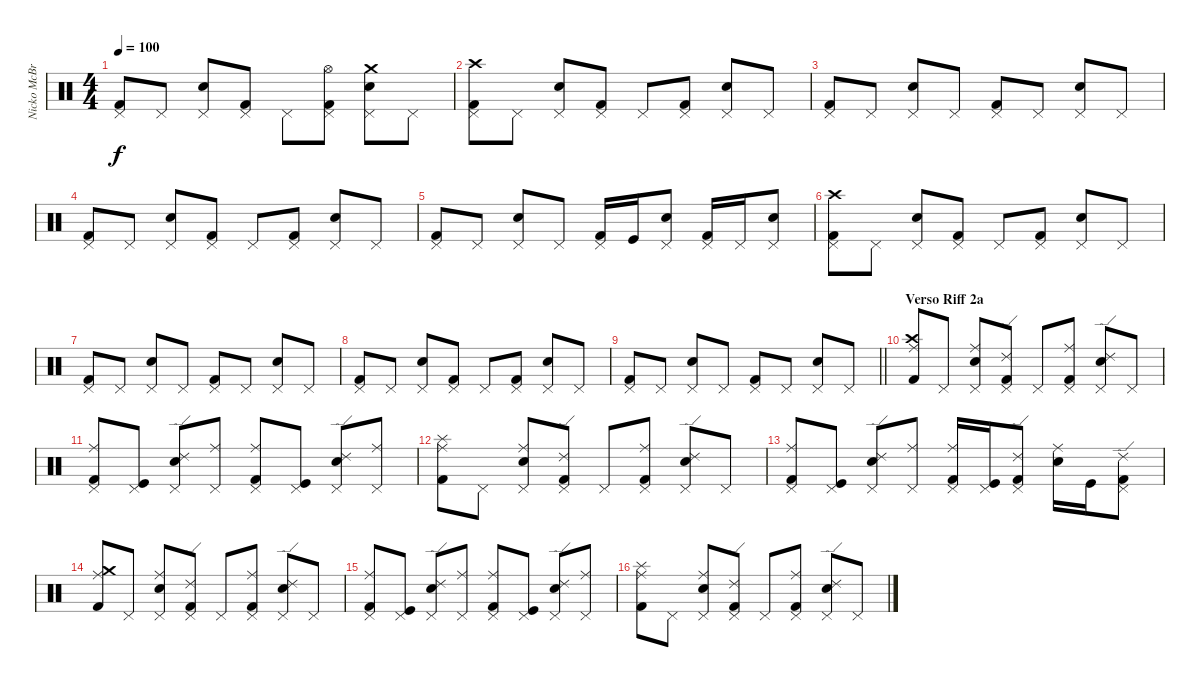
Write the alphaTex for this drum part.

\track ("Nicko McBrain" "Nicko McBr") {instrument percussion}
\staff {score}
\articulation defaults
\ts (4 4)
\tempo 100
\clef neutral
\ks c
("Kick (hit) 2" "Pedal Hi-Hat (hit)").8{dy f} "Pedal Hi-Hat (hit)".8 ("Snare (hit) 2" "Pedal Hi-Hat (hit)").8 ("Kick (hit) 2" "Pedal Hi-Hat (hit)").8 "Pedal Hi-Hat (hit)".8 ("Kick (hit) 2" "Pedal Hi-Hat (hit)" "Hi-Hat (open)").8 ("Snare (hit) 2" "Pedal Hi-Hat (hit)" "Crash medium (hit)").8 "Pedal Hi-Hat (hit)".8 |
("Kick (hit) 2" "Pedal Hi-Hat (hit)" "Crash high (hit)").8 "Pedal Hi-Hat (hit)".8 ("Snare (hit) 2" "Pedal Hi-Hat (hit)").8 ("Kick (hit) 2" "Pedal Hi-Hat (hit)").8 "Pedal Hi-Hat (hit)".8 ("Kick (hit) 2" "Pedal Hi-Hat (hit)").8 ("Snare (hit) 2" "Pedal Hi-Hat (hit)").8 "Pedal Hi-Hat (hit)".8 |
("Kick (hit) 2" "Pedal Hi-Hat (hit)").8 "Pedal Hi-Hat (hit)".8 ("Snare (hit) 2" "Pedal Hi-Hat (hit)").8 "Pedal Hi-Hat (hit)".8 ("Kick (hit) 2" "Pedal Hi-Hat (hit)").8 "Pedal Hi-Hat (hit)".8 ("Snare (hit) 2" "Pedal Hi-Hat (hit)").8 "Pedal Hi-Hat (hit)".8 |
("Kick (hit) 2" "Pedal Hi-Hat (hit)").8 "Pedal Hi-Hat (hit)".8 ("Snare (hit) 2" "Pedal Hi-Hat (hit)").8 ("Kick (hit) 2" "Pedal Hi-Hat (hit)").8 "Pedal Hi-Hat (hit)".8 ("Kick (hit) 2" "Pedal Hi-Hat (hit)").8 ("Snare (hit) 2" "Pedal Hi-Hat (hit)").8 "Pedal Hi-Hat (hit)".8 |
("Kick (hit) 2" "Pedal Hi-Hat (hit)").8 "Pedal Hi-Hat (hit)".8 ("Snare (hit) 2" "Pedal Hi-Hat (hit)").8 "Pedal Hi-Hat (hit)".8 ("Kick (hit) 2" "Pedal Hi-Hat (hit)").16 "Kick (hit)".16 ("Snare (hit) 2" "Pedal Hi-Hat (hit)").8 ("Kick (hit) 2" "Pedal Hi-Hat (hit)").16 "Pedal Hi-Hat (hit)".16 ("Snare (hit) 2" "Pedal Hi-Hat (hit)").8 |
("Kick (hit) 2" "Pedal Hi-Hat (hit)" "Crash high (hit)").8 "Pedal Hi-Hat (hit)".8 ("Snare (hit) 2" "Pedal Hi-Hat (hit)").8 ("Kick (hit) 2" "Pedal Hi-Hat (hit)").8 "Pedal Hi-Hat (hit)".8 ("Kick (hit) 2" "Pedal Hi-Hat (hit)").8 ("Snare (hit) 2" "Pedal Hi-Hat (hit)").8 "Pedal Hi-Hat (hit)".8 |
("Kick (hit) 2" "Pedal Hi-Hat (hit)").8 "Pedal Hi-Hat (hit)".8 ("Snare (hit) 2" "Pedal Hi-Hat (hit)").8 "Pedal Hi-Hat (hit)".8 ("Kick (hit) 2" "Pedal Hi-Hat (hit)").8 "Pedal Hi-Hat (hit)".8 ("Snare (hit) 2" "Pedal Hi-Hat (hit)").8 "Pedal Hi-Hat (hit)".8 |
("Kick (hit) 2" "Pedal Hi-Hat (hit)").8 "Pedal Hi-Hat (hit)".8 ("Snare (hit) 2" "Pedal Hi-Hat (hit)").8 ("Kick (hit) 2" "Pedal Hi-Hat (hit)").8 "Pedal Hi-Hat (hit)".8 ("Kick (hit) 2" "Pedal Hi-Hat (hit)").8 ("Snare (hit) 2" "Pedal Hi-Hat (hit)").8 "Pedal Hi-Hat (hit)".8 |
\barLineRight lightlight
("Kick (hit) 2" "Pedal Hi-Hat (hit)").8 "Pedal Hi-Hat (hit)".8 ("Snare (hit) 2" "Pedal Hi-Hat (hit)").8 "Pedal Hi-Hat (hit)".8 ("Kick (hit) 2" "Pedal Hi-Hat (hit)").8 "Pedal Hi-Hat (hit)".8 ("Snare (hit) 2" "Pedal Hi-Hat (hit)").8 "Pedal Hi-Hat (hit)".8 |
\section ("" "Verso Riff 2a")
("Kick (hit) 2" "Ride (middle)" "Crash high (hit)").8 "Pedal Hi-Hat (hit)".8 ("Snare (hit) 2" "Pedal Hi-Hat (hit)" "Ride (middle)").8 ("Kick (hit) 2" "Pedal Hi-Hat (hit)" "Ride (edge) 2").8 "Pedal Hi-Hat (hit)".8 ("Kick (hit) 2" "Pedal Hi-Hat (hit)" "Ride (middle)").8 ("Snare (hit) 2" "Pedal Hi-Hat (hit)" "Ride (edge) 2").8 "Pedal Hi-Hat (hit)".8 |
("Kick (hit) 2" "Pedal Hi-Hat (hit)" "Ride (middle)").8 ("Kick (hit)" "Pedal Hi-Hat (hit)").8 ("Snare (hit) 2" "Pedal Hi-Hat (hit)" "Ride (edge) 2").8 ("Pedal Hi-Hat (hit)" "Ride (middle)").8 ("Kick (hit) 2" "Pedal Hi-Hat (hit)" "Ride (middle)").8 ("Kick (hit)" "Pedal Hi-Hat (hit)").8 ("Snare (hit) 2" "Pedal Hi-Hat (hit)" "Ride (edge) 2").8 ("Pedal Hi-Hat (hit)" "Ride (middle)").8 |
("Kick (hit) 2" "Ride (middle)" "Splash (hit)").8 "Pedal Hi-Hat (hit)".8 ("Snare (hit) 2" "Pedal Hi-Hat (hit)" "Ride (middle)").8 ("Kick (hit) 2" "Pedal Hi-Hat (hit)" "Ride (edge) 2").8 "Pedal Hi-Hat (hit)".8 ("Kick (hit) 2" "Pedal Hi-Hat (hit)" "Ride (middle)").8 ("Snare (hit) 2" "Pedal Hi-Hat (hit)" "Ride (edge) 2").8 "Pedal Hi-Hat (hit)".8 |
("Kick (hit) 2" "Pedal Hi-Hat (hit)" "Ride (middle)").8 ("Kick (hit)" "Pedal Hi-Hat (hit)").8 ("Snare (hit) 2" "Pedal Hi-Hat (hit)" "Ride (edge) 2").8 ("Pedal Hi-Hat (hit)" "Ride (middle)").8 ("Kick (hit) 2" "Pedal Hi-Hat (hit)" "Ride (middle)").16 ("Kick (hit)" "Pedal Hi-Hat (hit)").16 ("Kick (hit) 2" "Pedal Hi-Hat (hit)" "Ride (edge) 2").8 ("Snare (hit) 2" "Ride (middle)").16 "Kick (hit)".16 ("Kick (hit) 2" "Pedal Hi-Hat (hit)" "Ride (edge) 2").8 |
("Kick (hit) 2" "Ride (middle)" "Crash medium (hit)").8 "Pedal Hi-Hat (hit)".8 ("Snare (hit) 2" "Pedal Hi-Hat (hit)" "Ride (middle)").8 ("Kick (hit) 2" "Pedal Hi-Hat (hit)" "Ride (edge) 2").8 "Pedal Hi-Hat (hit)".8 ("Kick (hit) 2" "Pedal Hi-Hat (hit)" "Ride (middle)").8 ("Snare (hit) 2" "Pedal Hi-Hat (hit)" "Ride (edge) 2").8 "Pedal Hi-Hat (hit)".8 |
("Kick (hit) 2" "Pedal Hi-Hat (hit)" "Ride (middle)").8 ("Kick (hit)" "Pedal Hi-Hat (hit)").8 ("Snare (hit) 2" "Pedal Hi-Hat (hit)" "Ride (edge) 2").8 ("Pedal Hi-Hat (hit)" "Ride (middle)").8 ("Kick (hit) 2" "Pedal Hi-Hat (hit)" "Ride (middle)").8 ("Kick (hit)" "Pedal Hi-Hat (hit)").8 ("Snare (hit) 2" "Pedal Hi-Hat (hit)" "Ride (edge) 2").8 ("Pedal Hi-Hat (hit)" "Ride (middle)").8 |
("Kick (hit) 2" "Ride (middle)" "Splash (hit)").8 "Pedal Hi-Hat (hit)".8 ("Snare (hit) 2" "Pedal Hi-Hat (hit)" "Ride (middle)").8 ("Kick (hit) 2" "Pedal Hi-Hat (hit)" "Ride (edge) 2").8 "Pedal Hi-Hat (hit)".8 ("Kick (hit) 2" "Pedal Hi-Hat (hit)" "Ride (middle)").8 ("Snare (hit) 2" "Pedal Hi-Hat (hit)" "Ride (edge) 2").8 "Pedal Hi-Hat (hit)".8
